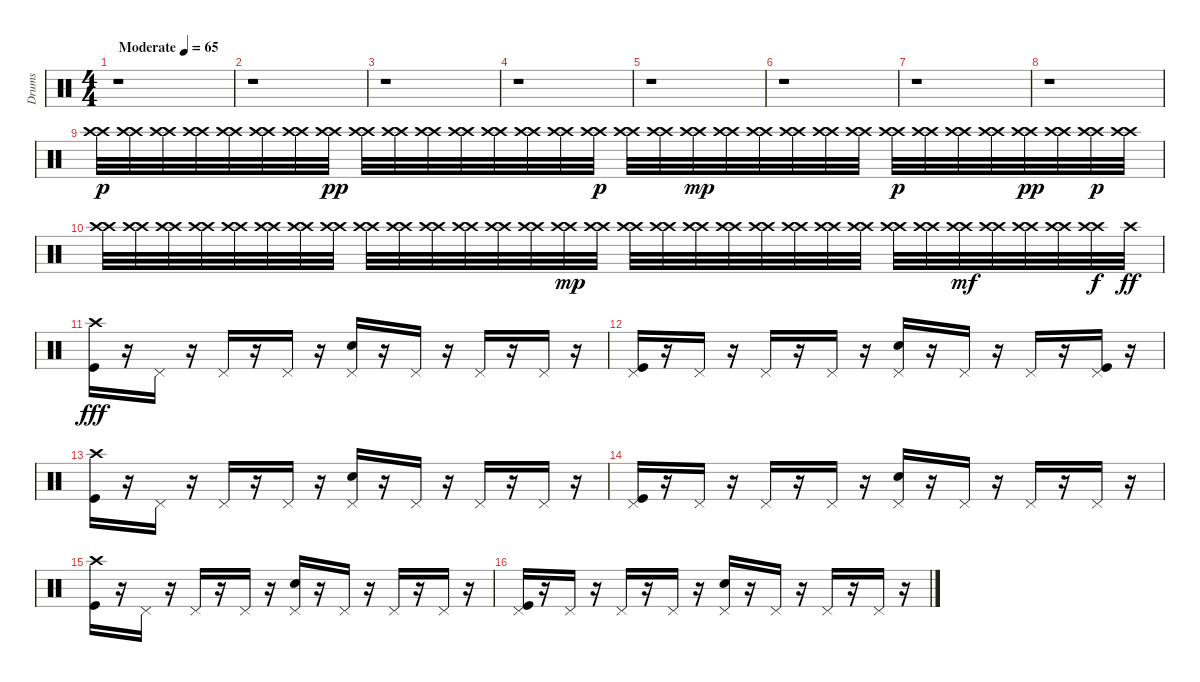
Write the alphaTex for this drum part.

\track ("Drums" "Drums") {instrument percussion}
\staff {score}
\articulation defaults
\ts (4 4)
\tempo (65 "Moderate")
\clef neutral
\ks c
r.1{dy p} |
r.1 |
r.1 |
r.1 |
r.1 |
r.1 |
r.1 |
r.1 |
("Crash high (hit)" "Crash high (hit)").32 ("Crash high (hit)" "Crash high (hit)").32 ("Crash high (hit)" "Crash high (hit)").32 ("Crash high (hit)" "Crash high (hit)").32 ("Crash high (hit)" "Crash high (hit)").32 ("Crash high (hit)" "Crash high (hit)").32 ("Crash high (hit)" "Crash high (hit)").32 ("Crash high (hit)" "Crash high (hit)").32{dy pp} ("Crash high (hit)" "Crash high (hit)").32 ("Crash high (hit)" "Crash high (hit)").32 ("Crash high (hit)" "Crash high (hit)").32 ("Crash high (hit)" "Crash high (hit)").32 ("Crash high (hit)" "Crash high (hit)").32 ("Crash high (hit)" "Crash high (hit)").32 ("Crash high (hit)" "Crash high (hit)").32 ("Crash high (hit)" "Crash high (hit)").32{dy p} ("Crash high (hit)" "Crash high (hit)").32 ("Crash high (hit)" "Crash high (hit)").32 ("Crash high (hit)" "Crash high (hit)").32{dy mp} ("Crash high (hit)" "Crash high (hit)").32 ("Crash high (hit)" "Crash high (hit)").32 ("Crash high (hit)" "Crash high (hit)").32 ("Crash high (hit)" "Crash high (hit)").32 ("Crash high (hit)" "Crash high (hit)").32 ("Crash high (hit)" "Crash high (hit)").32{dy p} ("Crash high (hit)" "Crash high (hit)").32 ("Crash high (hit)" "Crash high (hit)").32 ("Crash high (hit)" "Crash high (hit)").32 ("Crash high (hit)" "Crash high (hit)").32{dy pp} ("Crash high (hit)" "Crash high (hit)").32 ("Crash high (hit)" "Crash high (hit)").32{dy p} ("Crash high (hit)" "Crash high (hit)").32 |
("Crash high (hit)" "Crash high (hit)").32 ("Crash high (hit)" "Crash high (hit)").32 ("Crash high (hit)" "Crash high (hit)").32 ("Crash high (hit)" "Crash high (hit)").32 ("Crash high (hit)" "Crash high (hit)").32 ("Crash high (hit)" "Crash high (hit)").32 ("Crash high (hit)" "Crash high (hit)").32 ("Crash high (hit)" "Crash high (hit)").32 ("Crash high (hit)" "Crash high (hit)").32 ("Crash high (hit)" "Crash high (hit)").32 ("Crash high (hit)" "Crash high (hit)").32 ("Crash high (hit)" "Crash high (hit)").32 ("Crash high (hit)" "Crash high (hit)").32 ("Crash high (hit)" "Crash high (hit)").32 ("Crash high (hit)" "Crash high (hit)").32{dy mp} ("Crash high (hit)" "Crash high (hit)").32 ("Crash high (hit)" "Crash high (hit)").32 ("Crash high (hit)" "Crash high (hit)").32 ("Crash high (hit)" "Crash high (hit)").32 ("Crash high (hit)" "Crash high (hit)").32 ("Crash high (hit)" "Crash high (hit)").32 ("Crash high (hit)" "Crash high (hit)").32 ("Crash high (hit)" "Crash high (hit)").32 ("Crash high (hit)" "Crash high (hit)").32 ("Crash high (hit)" "Crash high (hit)").32 ("Crash high (hit)" "Crash high (hit)").32 ("Crash high (hit)" "Crash high (hit)").32{dy mf} ("Crash high (hit)" "Crash high (hit)").32 ("Crash high (hit)" "Crash high (hit)").32 ("Crash high (hit)" "Crash high (hit)").32 ("Crash high (hit)" "Crash high (hit)").32{dy f} "Crash high (hit)".32{dy ff} |
("Crash high (hit)" "Kick (hit)").16{dy fff} r.16 "Pedal Hi-Hat (hit)".16 r.16 "Pedal Hi-Hat (hit)".16 r.16 "Pedal Hi-Hat (hit)".16 r.16 ("Pedal Hi-Hat (hit)" "Snare (hit) 2").16 r.16 "Pedal Hi-Hat (hit)".16 r.16 "Pedal Hi-Hat (hit)".16 r.16 "Pedal Hi-Hat (hit)".16 r.16 |
("Kick (hit)" "Pedal Hi-Hat (hit)").16 r.16 "Pedal Hi-Hat (hit)".16 r.16 "Pedal Hi-Hat (hit)".16 r.16 "Pedal Hi-Hat (hit)".16 r.16 ("Snare (hit) 2" "Pedal Hi-Hat (hit)").16 r.16 "Pedal Hi-Hat (hit)".16 r.16 "Pedal Hi-Hat (hit)".16 r.16 ("Pedal Hi-Hat (hit)" "Kick (hit)").16 r.16 |
("Kick (hit)" "Crash high (hit)").16 r.16 "Pedal Hi-Hat (hit)".16 r.16 "Pedal Hi-Hat (hit)".16 r.16 "Pedal Hi-Hat (hit)".16 r.16 ("Snare (hit) 2" "Pedal Hi-Hat (hit)").16 r.16 "Pedal Hi-Hat (hit)".16 r.16 "Pedal Hi-Hat (hit)".16 r.16 "Pedal Hi-Hat (hit)".16 r.16 |
("Pedal Hi-Hat (hit)" "Kick (hit)").16 r.16 "Pedal Hi-Hat (hit)".16 r.16 "Pedal Hi-Hat (hit)".16 r.16 "Pedal Hi-Hat (hit)".16 r.16 ("Pedal Hi-Hat (hit)" "Snare (hit) 2").16 r.16 "Pedal Hi-Hat (hit)".16 r.16 "Pedal Hi-Hat (hit)".16 r.16 "Pedal Hi-Hat (hit)".16 r.16 |
("Crash high (hit)" "Kick (hit)").16 r.16 "Pedal Hi-Hat (hit)".16 r.16 "Pedal Hi-Hat (hit)".16 r.16 "Pedal Hi-Hat (hit)".16 r.16 ("Pedal Hi-Hat (hit)" "Snare (hit) 2").16 r.16 "Pedal Hi-Hat (hit)".16 r.16 "Pedal Hi-Hat (hit)".16 r.16 "Pedal Hi-Hat (hit)".16 r.16 |
("Kick (hit)" "Pedal Hi-Hat (hit)").16 r.16 "Pedal Hi-Hat (hit)".16 r.16 "Pedal Hi-Hat (hit)".16 r.16 "Pedal Hi-Hat (hit)".16 r.16 ("Snare (hit) 2" "Pedal Hi-Hat (hit)").16 r.16 "Pedal Hi-Hat (hit)".16 r.16 "Pedal Hi-Hat (hit)".16 r.16 "Pedal Hi-Hat (hit)".16 r.16
